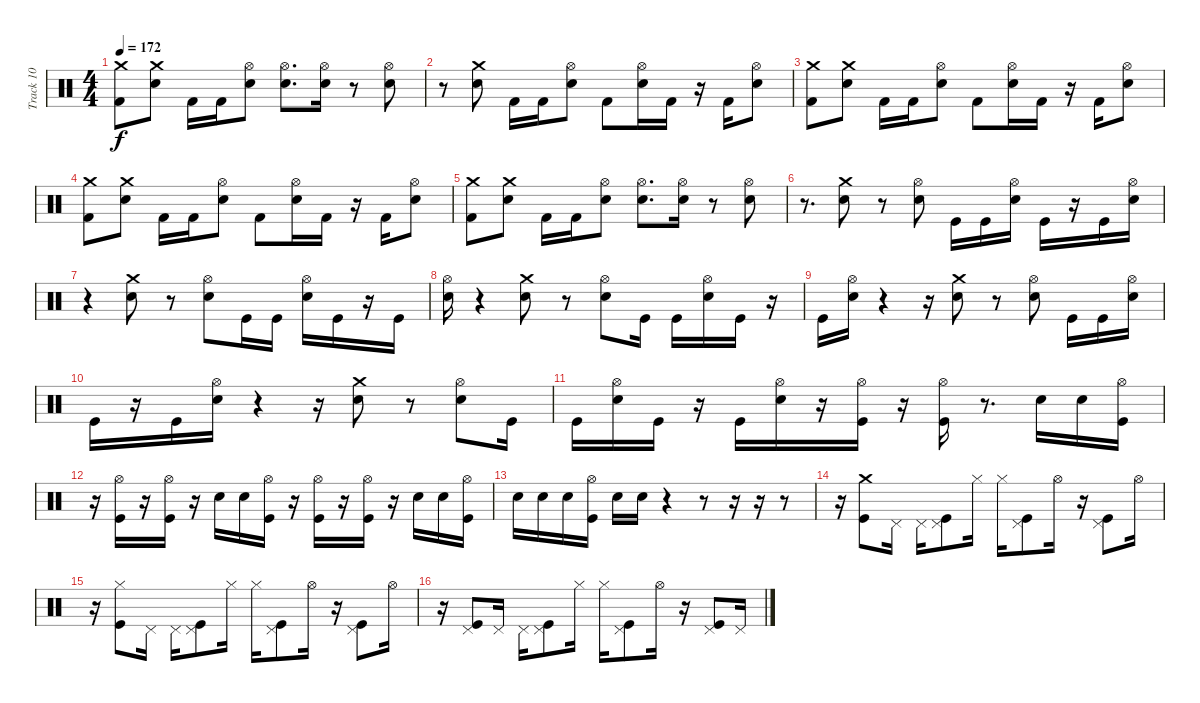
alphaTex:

\track ("Track 10" "Track 10") {instrument percussion}
\staff {score}
\articulation defaults
\ts (4 4)
\tempo 172
\clef neutral
\ks c
("Crash medium (hit)" "Kick (hit) 2").8{dy f} ("Crash medium (hit)" "Electric Snare (hit)").8 "Kick (hit) 2".16 "Kick (hit) 2".16 ("Hi-Hat (open)" "Electric Snare (hit)").8 ("Hi-Hat (open)" "Electric Snare (hit)").8{d} ("Hi-Hat (open)" "Electric Snare (hit)").16 r.8 ("Hi-Hat (open)" "Electric Snare (hit)").8 |
r.8 ("Crash medium (hit)" "Electric Snare (hit)").8 "Kick (hit) 2".16 "Kick (hit) 2".16 ("Hi-Hat (open)" "Electric Snare (hit)").8 "Kick (hit) 2".8 ("Hi-Hat (open)" "Electric Snare (hit)").16 "Kick (hit) 2".16 r.16 "Kick (hit) 2".16 ("Hi-Hat (open)" "Electric Snare (hit)").8 |
("Crash medium (hit)" "Kick (hit) 2").8 ("Crash medium (hit)" "Electric Snare (hit)").8 "Kick (hit) 2".16 "Kick (hit) 2".16 ("Hi-Hat (open)" "Electric Snare (hit)").8 "Kick (hit) 2".8 ("Hi-Hat (open)" "Electric Snare (hit)").16 "Kick (hit) 2".16 r.16 "Kick (hit) 2".16 ("Hi-Hat (open)" "Electric Snare (hit)").8 |
("Crash medium (hit)" "Kick (hit) 2").8 ("Crash medium (hit)" "Electric Snare (hit)").8 "Kick (hit) 2".16 "Kick (hit) 2".16 ("Hi-Hat (open)" "Electric Snare (hit)").8 "Kick (hit) 2".8 ("Hi-Hat (open)" "Electric Snare (hit)").16 "Kick (hit) 2".16 r.16 "Kick (hit) 2".16 ("Hi-Hat (open)" "Electric Snare (hit)").8 |
("Crash medium (hit)" "Kick (hit) 2").8 ("Crash medium (hit)" "Electric Snare (hit)").8 "Kick (hit) 2".16 "Kick (hit) 2".16 ("Hi-Hat (open)" "Electric Snare (hit)").8 ("Hi-Hat (open)" "Electric Snare (hit)").8{d} ("Hi-Hat (open)" "Electric Snare (hit)").16 r.8 ("Hi-Hat (open)" "Electric Snare (hit)").8 |
r.8{d} ("Crash medium (hit)" "Electric Snare (hit)").8 r.8 ("Hi-Hat (open)" "Electric Snare (hit)").8 "Kick (hit)".16 "Kick (hit)".16 ("Hi-Hat (open)" "Electric Snare (hit)").16 "Kick (hit)".16 r.16 "Kick (hit)".16 ("Hi-Hat (open)" "Electric Snare (hit)").16 |
r.4 ("Crash medium (hit)" "Electric Snare (hit)").8 r.8 ("Hi-Hat (open)" "Electric Snare (hit)").8 "Kick (hit)".16 "Kick (hit)".16 ("Hi-Hat (open)" "Electric Snare (hit)").16 "Kick (hit)".16 r.16 "Kick (hit)".16 |
("Hi-Hat (open)" "Electric Snare (hit)").16 r.4 ("Crash medium (hit)" "Electric Snare (hit)").8 r.8 ("Hi-Hat (open)" "Electric Snare (hit)").8 "Kick (hit)".16 "Kick (hit)".16 ("Hi-Hat (open)" "Electric Snare (hit)").16 "Kick (hit)".16 r.16 |
"Kick (hit)".16 ("Hi-Hat (open)" "Electric Snare (hit)").16 r.4 r.16 ("Crash medium (hit)" "Electric Snare (hit)").8 r.8 ("Hi-Hat (open)" "Electric Snare (hit)").8 "Kick (hit)".16 "Kick (hit)".16 ("Hi-Hat (open)" "Electric Snare (hit)").16 |
"Kick (hit)".16 r.16 "Kick (hit)".16 ("Hi-Hat (open)" "Electric Snare (hit)").16 r.4 r.16 ("Crash medium (hit)" "Electric Snare (hit)").8 r.8 ("Hi-Hat (open)" "Electric Snare (hit)").8 "Kick (hit)".16 |
"Kick (hit)".16 ("Hi-Hat (open)" "Electric Snare (hit)").16 "Kick (hit)".16 r.16 "Kick (hit)".16 ("Hi-Hat (open)" "Electric Snare (hit)").16 r.16 ("Hi-Hat (open)" "Kick (hit)").16 r.16 ("Hi-Hat (open)" "Kick (hit)").16 r.8{d} "Electric Snare (hit)".16 "Electric Snare (hit)".16 ("Hi-Hat (open)" "Kick (hit)").16 |
r.16 ("Hi-Hat (open)" "Kick (hit)").16 r.16 ("Hi-Hat (open)" "Kick (hit)").16 r.16 "Electric Snare (hit)".16 "Electric Snare (hit)".16 ("Hi-Hat (open)" "Kick (hit)").16 r.16 ("Hi-Hat (open)" "Kick (hit)").16 r.16 ("Hi-Hat (open)" "Kick (hit)").16 r.16 "Electric Snare (hit)".16 "Electric Snare (hit)".16 ("Hi-Hat (open)" "Kick (hit)").16 |
"Electric Snare (hit)".16 "Electric Snare (hit)".16 "Electric Snare (hit)".16 ("Hi-Hat (open)" "Kick (hit)").16 "Electric Snare (hit)".16 "Electric Snare (hit)".16 r.4 r.8 r.16 r.16 r.8 |
r.16 ("Crash medium (hit)" "Kick (hit)").8 "Pedal Hi-Hat (hit)".16 "Pedal Hi-Hat (hit)".16 ("Pedal Hi-Hat (hit)" "Kick (hit)").8 "Hi-Hat (closed)".16 "Hi-Hat (closed)".16 ("Pedal Hi-Hat (hit)" "Kick (hit)").8 "Hi-Hat (open)".16 r.16 ("Pedal Hi-Hat (hit)" "Kick (hit)").8 "Hi-Hat (open)".16 |
r.16 ("Hi-Hat (closed)" "Kick (hit)").8 "Pedal Hi-Hat (hit)".16 "Pedal Hi-Hat (hit)".16 ("Pedal Hi-Hat (hit)" "Kick (hit)").8 "Hi-Hat (closed)".16 "Hi-Hat (closed)".16 ("Pedal Hi-Hat (hit)" "Kick (hit)").8 "Hi-Hat (open)".16 r.16 ("Pedal Hi-Hat (hit)" "Kick (hit)").8 "Hi-Hat (open)".16 |
r.16 ("Pedal Hi-Hat (hit)" "Kick (hit)").8 "Pedal Hi-Hat (hit)".16 "Pedal Hi-Hat (hit)".16 ("Pedal Hi-Hat (hit)" "Kick (hit)").8 "Hi-Hat (closed)".16 "Hi-Hat (closed)".16 ("Pedal Hi-Hat (hit)" "Kick (hit)").8 "Hi-Hat (open)".16 r.16 ("Pedal Hi-Hat (hit)" "Kick (hit)").8 "Pedal Hi-Hat (hit)".16
